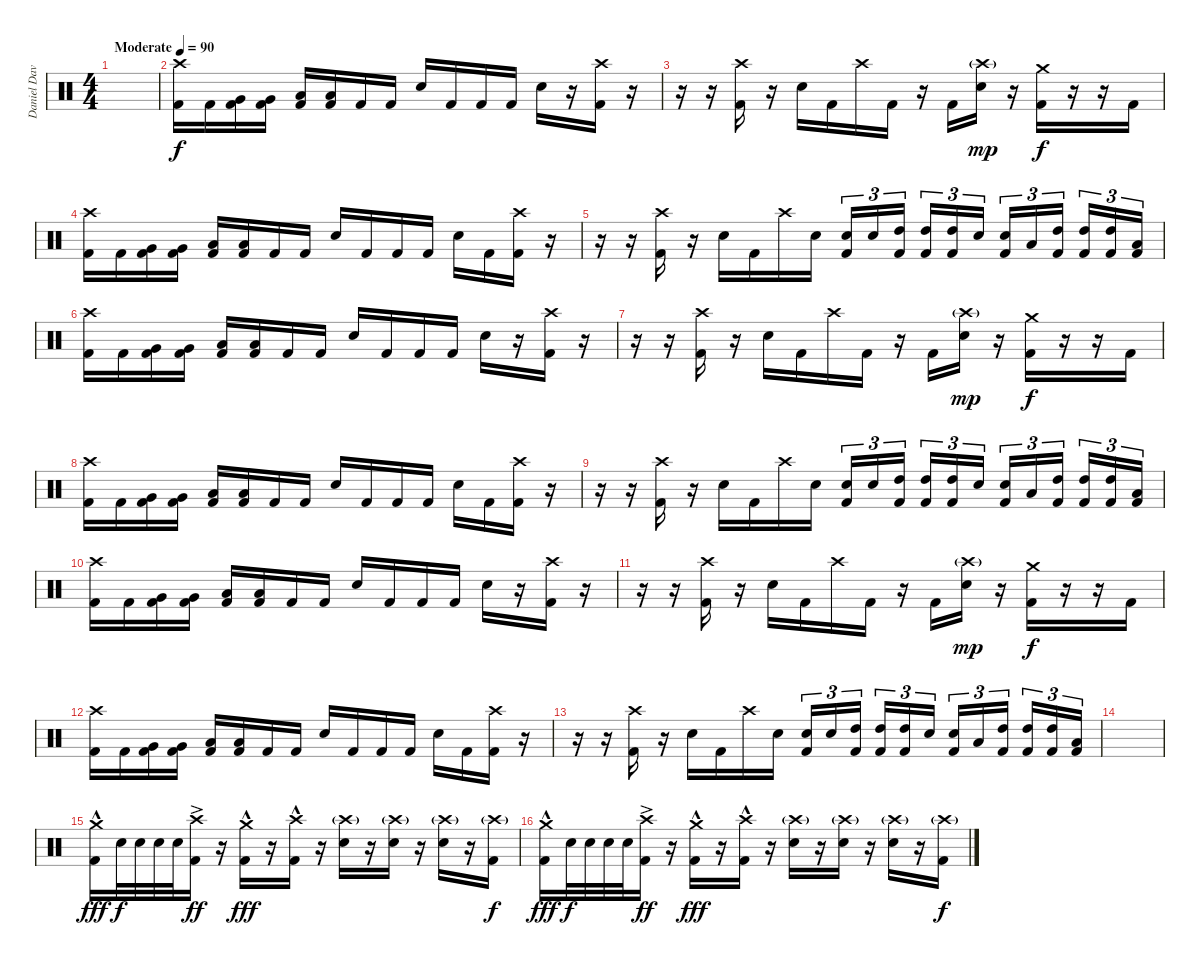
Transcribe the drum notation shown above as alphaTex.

\track ("Daniel Davison" "Daniel Dav") {instrument percussion}
\staff {score}
\articulation defaults
\ts (4 4)
\tempo (90 "Moderate")
\clef neutral
\ks c
|
("Crash high (hit)" "Kick (hit) 2").16 "Kick (hit) 2".16 ("Very Low Tom (hit)" "Kick (hit) 2").16 ("Very Low Tom (hit)" "Kick (hit) 2").16 ("Low Tom (hit)" "Kick (hit) 2").16 ("Low Tom (hit)" "Kick (hit) 2").16 "Kick (hit) 2".16 "Kick (hit) 2".16 "Electric Snare (hit)".16 "Kick (hit) 2".16 "Kick (hit) 2".16 "Kick (hit) 2".16 "Electric Snare (hit)".16 r.16 ("Crash high (hit)" "Kick (hit) 2").16 r.16 |
r.16 r.16 ("Crash high (hit)" "Kick (hit) 2").16 r.16 "Electric Snare (hit)".16 "Kick (hit) 2".16 "Crash high (hit)".16 "Kick (hit) 2".16 r.16 "Kick (hit) 2".16 ("Crash high (hit)"{g} "Electric Snare (hit)").16{dy mp} r.16 ("Crash medium (hit)" "Kick (hit) 2").16{dy f} r.16 r.16 "Kick (hit) 2".16 |
("Crash high (hit)" "Kick (hit) 2").16 "Kick (hit) 2".16 ("Very Low Tom (hit)" "Kick (hit) 2").16 ("Very Low Tom (hit)" "Kick (hit) 2").16 ("Low Tom (hit)" "Kick (hit) 2").16 ("Low Tom (hit)" "Kick (hit) 2").16 "Kick (hit) 2".16 "Kick (hit) 2".16 "Electric Snare (hit)".16 "Kick (hit) 2".16 "Kick (hit) 2".16 "Kick (hit) 2".16 "Electric Snare (hit)".16 "Kick (hit) 2".16 ("Crash high (hit)" "Kick (hit) 2").16 r.16 |
r.16 r.16 ("Crash high (hit)" "Kick (hit) 2").16 r.16 "Electric Snare (hit)".16 "Kick (hit) 2".16 "Crash high (hit)".16 "Electric Snare (hit)".16 ("Electric Snare (hit)" "Kick (hit) 2").16{tu (3 2)} "Electric Snare (hit)".16{tu (3 2)} ("High Tom (hit)" "Kick (hit) 2").16{tu (3 2) beam splitsecondary} ("High Tom (hit)" "Kick (hit) 2").16{tu (3 2)} ("High Tom (hit)" "Kick (hit) 2").16{tu (3 2)} "Electric Snare (hit)".16{tu (3 2)} ("Electric Snare (hit)" "Kick (hit) 2").16{tu (3 2)} "Low Tom (hit)".16{tu (3 2)} ("High Tom (hit)" "Kick (hit) 2").16{tu (3 2) beam splitsecondary} ("High Tom (hit)" "Kick (hit) 2").16{tu (3 2)} ("High Tom (hit)" "Kick (hit) 2").16{tu (3 2)} ("Low Tom (hit)" "Kick (hit) 2").16{tu (3 2)} |
("Crash high (hit)" "Kick (hit) 2").16 "Kick (hit) 2".16 ("Very Low Tom (hit)" "Kick (hit) 2").16 ("Very Low Tom (hit)" "Kick (hit) 2").16 ("Low Tom (hit)" "Kick (hit) 2").16 ("Low Tom (hit)" "Kick (hit) 2").16 "Kick (hit) 2".16 "Kick (hit) 2".16 "Electric Snare (hit)".16 "Kick (hit) 2".16 "Kick (hit) 2".16 "Kick (hit) 2".16 "Electric Snare (hit)".16 r.16 ("Crash high (hit)" "Kick (hit) 2").16 r.16 |
r.16 r.16 ("Crash high (hit)" "Kick (hit) 2").16 r.16 "Electric Snare (hit)".16 "Kick (hit) 2".16 "Crash high (hit)".16 "Kick (hit) 2".16 r.16 "Kick (hit) 2".16 ("Crash high (hit)"{g} "Electric Snare (hit)").16{dy mp} r.16 ("Crash medium (hit)" "Kick (hit) 2").16{dy f} r.16 r.16 "Kick (hit) 2".16 |
("Crash high (hit)" "Kick (hit) 2").16 "Kick (hit) 2".16 ("Very Low Tom (hit)" "Kick (hit) 2").16 ("Very Low Tom (hit)" "Kick (hit) 2").16 ("Low Tom (hit)" "Kick (hit) 2").16 ("Low Tom (hit)" "Kick (hit) 2").16 "Kick (hit) 2".16 "Kick (hit) 2".16 "Electric Snare (hit)".16 "Kick (hit) 2".16 "Kick (hit) 2".16 "Kick (hit) 2".16 "Electric Snare (hit)".16 "Kick (hit) 2".16 ("Crash high (hit)" "Kick (hit) 2").16 r.16 |
r.16 r.16 ("Crash high (hit)" "Kick (hit) 2").16 r.16 "Electric Snare (hit)".16 "Kick (hit) 2".16 "Crash high (hit)".16 "Electric Snare (hit)".16 ("Electric Snare (hit)" "Kick (hit) 2").16{tu (3 2)} "Electric Snare (hit)".16{tu (3 2)} ("High Tom (hit)" "Kick (hit) 2").16{tu (3 2) beam splitsecondary} ("High Tom (hit)" "Kick (hit) 2").16{tu (3 2)} ("High Tom (hit)" "Kick (hit) 2").16{tu (3 2)} "Electric Snare (hit)".16{tu (3 2)} ("Electric Snare (hit)" "Kick (hit) 2").16{tu (3 2)} "Low Tom (hit)".16{tu (3 2)} ("High Tom (hit)" "Kick (hit) 2").16{tu (3 2) beam splitsecondary} ("High Tom (hit)" "Kick (hit) 2").16{tu (3 2)} ("High Tom (hit)" "Kick (hit) 2").16{tu (3 2)} ("Low Tom (hit)" "Kick (hit) 2").16{tu (3 2)} |
("Crash high (hit)" "Kick (hit) 2").16 "Kick (hit) 2".16 ("Very Low Tom (hit)" "Kick (hit) 2").16 ("Very Low Tom (hit)" "Kick (hit) 2").16 ("Low Tom (hit)" "Kick (hit) 2").16 ("Low Tom (hit)" "Kick (hit) 2").16 "Kick (hit) 2".16 "Kick (hit) 2".16 "Electric Snare (hit)".16 "Kick (hit) 2".16 "Kick (hit) 2".16 "Kick (hit) 2".16 "Electric Snare (hit)".16 r.16 ("Crash high (hit)" "Kick (hit) 2").16 r.16 |
r.16 r.16 ("Crash high (hit)" "Kick (hit) 2").16 r.16 "Electric Snare (hit)".16 "Kick (hit) 2".16 "Crash high (hit)".16 "Kick (hit) 2".16 r.16 "Kick (hit) 2".16 ("Crash high (hit)"{g} "Electric Snare (hit)").16{dy mp} r.16 ("Crash medium (hit)" "Kick (hit) 2").16{dy f} r.16 r.16 "Kick (hit) 2".16 |
("Crash high (hit)" "Kick (hit) 2").16 "Kick (hit) 2".16 ("Very Low Tom (hit)" "Kick (hit) 2").16 ("Very Low Tom (hit)" "Kick (hit) 2").16 ("Low Tom (hit)" "Kick (hit) 2").16 ("Low Tom (hit)" "Kick (hit) 2").16 "Kick (hit) 2".16 "Kick (hit) 2".16 "Electric Snare (hit)".16 "Kick (hit) 2".16 "Kick (hit) 2".16 "Kick (hit) 2".16 "Electric Snare (hit)".16 "Kick (hit) 2".16 ("Crash high (hit)" "Kick (hit) 2").16 r.16 |
r.16 r.16 ("Crash high (hit)" "Kick (hit) 2").16 r.16 "Electric Snare (hit)".16 "Kick (hit) 2".16 "Crash high (hit)".16 "Electric Snare (hit)".16 ("Electric Snare (hit)" "Kick (hit) 2").16{tu (3 2)} "Electric Snare (hit)".16{tu (3 2)} ("High Tom (hit)" "Kick (hit) 2").16{tu (3 2) beam splitsecondary} ("High Tom (hit)" "Kick (hit) 2").16{tu (3 2)} ("High Tom (hit)" "Kick (hit) 2").16{tu (3 2)} "Electric Snare (hit)".16{tu (3 2)} ("Electric Snare (hit)" "Kick (hit) 2").16{tu (3 2)} "Low Tom (hit)".16{tu (3 2)} ("High Tom (hit)" "Kick (hit) 2").16{tu (3 2) beam splitsecondary} ("High Tom (hit)" "Kick (hit) 2").16{tu (3 2)} ("High Tom (hit)" "Kick (hit) 2").16{tu (3 2)} ("Low Tom (hit)" "Kick (hit) 2").16{tu (3 2)} |
|
("Crash medium (hit)" "Kick (hit) 2"{hac}).16{dy fff} "Electric Snare (hit)".32{dy f} "Electric Snare (hit)".32 "Electric Snare (hit)".32 "Electric Snare (hit)".32 ("Crash high (hit)" "Kick (hit) 2"{ac}).16{dy ff} r.16 ("Crash medium (hit)" "Kick (hit) 2"{hac}).16{dy fff} r.16 ("Crash high (hit)" "Kick (hit) 2"{hac}).16 r.16 ("Crash high (hit)"{g} "Electric Snare (hit)").16 r.16 ("Crash high (hit)"{g} "Electric Snare (hit)").16 r.16 ("Crash high (hit)"{g} "Electric Snare (hit)").16 r.16 ("Crash high (hit)"{g} "Kick (hit) 2").16{dy f} |
("Crash medium (hit)" "Kick (hit) 2"{hac}).16{dy fff} "Electric Snare (hit)".32{dy f} "Electric Snare (hit)".32 "Electric Snare (hit)".32 "Electric Snare (hit)".32 ("Crash high (hit)" "Kick (hit) 2"{ac}).16{dy ff} r.16 ("Crash medium (hit)" "Kick (hit) 2"{hac}).16{dy fff} r.16 ("Crash high (hit)" "Kick (hit) 2"{hac}).16 r.16 ("Crash high (hit)"{g} "Electric Snare (hit)").16 r.16 ("Crash high (hit)"{g} "Electric Snare (hit)").16 r.16 ("Crash high (hit)"{g} "Electric Snare (hit)").16 r.16 ("Crash high (hit)"{g} "Kick (hit) 2").16{dy f}
